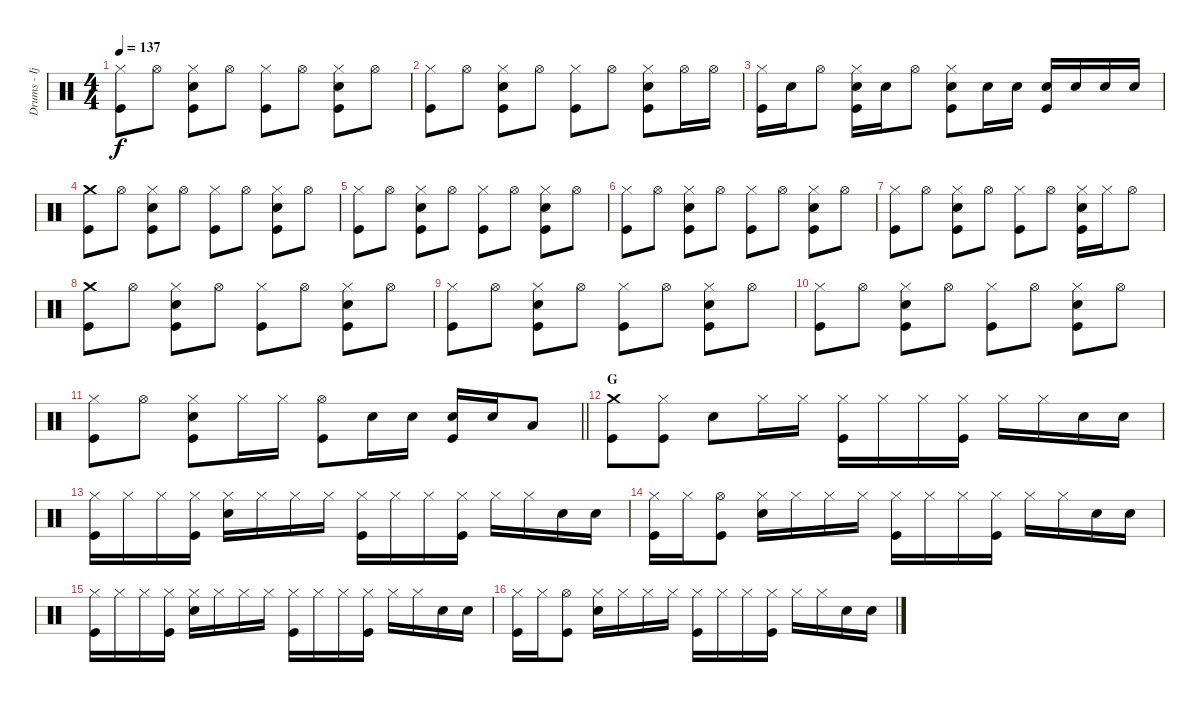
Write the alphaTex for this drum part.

\track ("Drums - Ijichi" "Drums - Ij") {instrument percussion}
\staff {score}
\articulation defaults
\ts (4 4)
\tempo 137
\clef neutral
\ks c
("Hi-Hat (closed)" "Kick (hit)").8{dy f} "Hi-Hat (open)".8 ("Hi-Hat (closed)" "Electric Snare (hit)" "Kick (hit)").8 "Hi-Hat (open)".8 ("Hi-Hat (closed)" "Kick (hit)").8 "Hi-Hat (open)".8 ("Hi-Hat (closed)" "Electric Snare (hit)" "Kick (hit)").8 "Hi-Hat (open)".8 |
("Hi-Hat (closed)" "Kick (hit)").8 "Hi-Hat (open)".8 ("Hi-Hat (closed)" "Electric Snare (hit)" "Kick (hit)").8 "Hi-Hat (open)".8 ("Hi-Hat (closed)" "Kick (hit)").8 "Hi-Hat (open)".8 ("Hi-Hat (closed)" "Electric Snare (hit)" "Kick (hit)").8 "Hi-Hat (open)".16 "Hi-Hat (open)".16 |
("Hi-Hat (closed)" "Kick (hit)").16 "Electric Snare (hit)".16 "Hi-Hat (open)".8 ("Hi-Hat (closed)" "Electric Snare (hit)" "Kick (hit)").16 "Electric Snare (hit)".16 "Hi-Hat (open)".8 ("Hi-Hat (closed)" "Electric Snare (hit)" "Kick (hit)").8 "Electric Snare (hit)".16 "Electric Snare (hit)".16 ("Electric Snare (hit)" "Kick (hit)").16 "Electric Snare (hit)".16 "Electric Snare (hit)".16 "Electric Snare (hit)".16 |
("Crash medium (hit)" "Kick (hit)").8 "Hi-Hat (open)".8 ("Hi-Hat (closed)" "Electric Snare (hit)" "Kick (hit)").8 "Hi-Hat (open)".8 ("Hi-Hat (closed)" "Kick (hit)").8 "Hi-Hat (open)".8 ("Hi-Hat (closed)" "Electric Snare (hit)" "Kick (hit)").8 "Hi-Hat (open)".8 |
("Hi-Hat (closed)" "Kick (hit)").8 "Hi-Hat (open)".8 ("Hi-Hat (closed)" "Electric Snare (hit)" "Kick (hit)").8 "Hi-Hat (open)".8 ("Hi-Hat (closed)" "Kick (hit)").8 "Hi-Hat (open)".8 ("Hi-Hat (closed)" "Electric Snare (hit)" "Kick (hit)").8 "Hi-Hat (open)".8 |
("Hi-Hat (closed)" "Kick (hit)").8 "Hi-Hat (open)".8 ("Hi-Hat (closed)" "Electric Snare (hit)" "Kick (hit)").8 "Hi-Hat (open)".8 ("Hi-Hat (closed)" "Kick (hit)").8 "Hi-Hat (open)".8 ("Hi-Hat (closed)" "Electric Snare (hit)" "Kick (hit)").8 "Hi-Hat (open)".8 |
("Hi-Hat (closed)" "Kick (hit)").8 "Hi-Hat (open)".8 ("Hi-Hat (closed)" "Electric Snare (hit)" "Kick (hit)").8 "Hi-Hat (open)".8 ("Hi-Hat (closed)" "Kick (hit)").8 "Hi-Hat (open)".8 ("Hi-Hat (closed)" "Electric Snare (hit)" "Kick (hit)").16 "Hi-Hat (closed)".16 "Hi-Hat (open)".8 |
("Crash medium (hit)" "Kick (hit)").8 "Hi-Hat (open)".8 ("Hi-Hat (closed)" "Electric Snare (hit)" "Kick (hit)").8 "Hi-Hat (open)".8 ("Hi-Hat (closed)" "Kick (hit)").8 "Hi-Hat (open)".8 ("Hi-Hat (closed)" "Electric Snare (hit)" "Kick (hit)").8 "Hi-Hat (open)".8 |
("Hi-Hat (closed)" "Kick (hit)").8 "Hi-Hat (open)".8 ("Hi-Hat (closed)" "Electric Snare (hit)" "Kick (hit)").8 "Hi-Hat (open)".8 ("Hi-Hat (closed)" "Kick (hit)").8 "Hi-Hat (open)".8 ("Hi-Hat (closed)" "Electric Snare (hit)" "Kick (hit)").8 "Hi-Hat (open)".8 |
("Hi-Hat (closed)" "Kick (hit)").8 "Hi-Hat (open)".8 ("Hi-Hat (closed)" "Electric Snare (hit)" "Kick (hit)").8 "Hi-Hat (open)".8 ("Hi-Hat (closed)" "Kick (hit)").8 "Hi-Hat (open)".8 ("Hi-Hat (closed)" "Electric Snare (hit)" "Kick (hit)").8 "Hi-Hat (open)".8 |
\barLineRight lightlight
("Hi-Hat (closed)" "Kick (hit)").8 "Hi-Hat (open)".8 ("Hi-Hat (closed)" "Electric Snare (hit)" "Kick (hit)").8 "Hi-Hat (closed)".16 "Hi-Hat (closed)".16 ("Hi-Hat (open)" "Kick (hit)").8 "Electric Snare (hit)".16 "Electric Snare (hit)".16 ("Electric Snare (hit)" "Kick (hit)").16 "Electric Snare (hit)".16 "Low Tom (hit)".8 |
\section ("" "G")
("Crash medium (hit)" "Kick (hit)").8 ("Hi-Hat (closed)" "Kick (hit)").8 "Electric Snare (hit)".8 "Hi-Hat (closed)".16 "Hi-Hat (closed)".16 ("Hi-Hat (closed)" "Kick (hit)").16 "Hi-Hat (closed)".16 "Hi-Hat (closed)".16 ("Hi-Hat (closed)" "Kick (hit)").16 "Hi-Hat (closed)".16 "Hi-Hat (closed)".16 "Electric Snare (hit)".16 "Electric Snare (hit)".16 |
("Hi-Hat (closed)" "Kick (hit)").16 "Hi-Hat (closed)".16 "Hi-Hat (closed)".16 ("Hi-Hat (closed)" "Kick (hit)").16 ("Hi-Hat (closed)" "Electric Snare (hit)").16 "Hi-Hat (closed)".16 "Hi-Hat (closed)".16 "Hi-Hat (closed)".16 ("Hi-Hat (closed)" "Kick (hit)").16 "Hi-Hat (closed)".16 "Hi-Hat (closed)".16 ("Hi-Hat (closed)" "Kick (hit)").16 "Hi-Hat (closed)".16 "Hi-Hat (closed)".16 "Electric Snare (hit)".16 "Electric Snare (hit)".16 |
("Hi-Hat (closed)" "Kick (hit)").16 "Hi-Hat (closed)".16 ("Hi-Hat (open)" "Kick (hit)").8 ("Hi-Hat (closed)" "Electric Snare (hit)").16 "Hi-Hat (closed)".16 "Hi-Hat (closed)".16 "Hi-Hat (closed)".16 ("Hi-Hat (closed)" "Kick (hit)").16 "Hi-Hat (closed)".16 "Hi-Hat (closed)".16 ("Hi-Hat (closed)" "Kick (hit)").16 "Hi-Hat (closed)".16 "Hi-Hat (closed)".16 "Electric Snare (hit)".16 "Electric Snare (hit)".16 |
("Hi-Hat (closed)" "Kick (hit)").16 "Hi-Hat (closed)".16 "Hi-Hat (closed)".16 ("Hi-Hat (closed)" "Kick (hit)").16 ("Hi-Hat (closed)" "Electric Snare (hit)").16 "Hi-Hat (closed)".16 "Hi-Hat (closed)".16 "Hi-Hat (closed)".16 ("Hi-Hat (closed)" "Kick (hit)").16 "Hi-Hat (closed)".16 "Hi-Hat (closed)".16 ("Hi-Hat (closed)" "Kick (hit)").16 "Hi-Hat (closed)".16 "Hi-Hat (closed)".16 "Electric Snare (hit)".16 "Electric Snare (hit)".16 |
("Hi-Hat (closed)" "Kick (hit)").16 "Hi-Hat (closed)".16 ("Hi-Hat (open)" "Kick (hit)").8 ("Hi-Hat (closed)" "Electric Snare (hit)").16 "Hi-Hat (closed)".16 "Hi-Hat (closed)".16 "Hi-Hat (closed)".16 ("Hi-Hat (closed)" "Kick (hit)").16 "Hi-Hat (closed)".16 "Hi-Hat (closed)".16 ("Hi-Hat (closed)" "Kick (hit)").16 "Hi-Hat (closed)".16 "Hi-Hat (closed)".16 "Electric Snare (hit)".16 "Electric Snare (hit)".16
